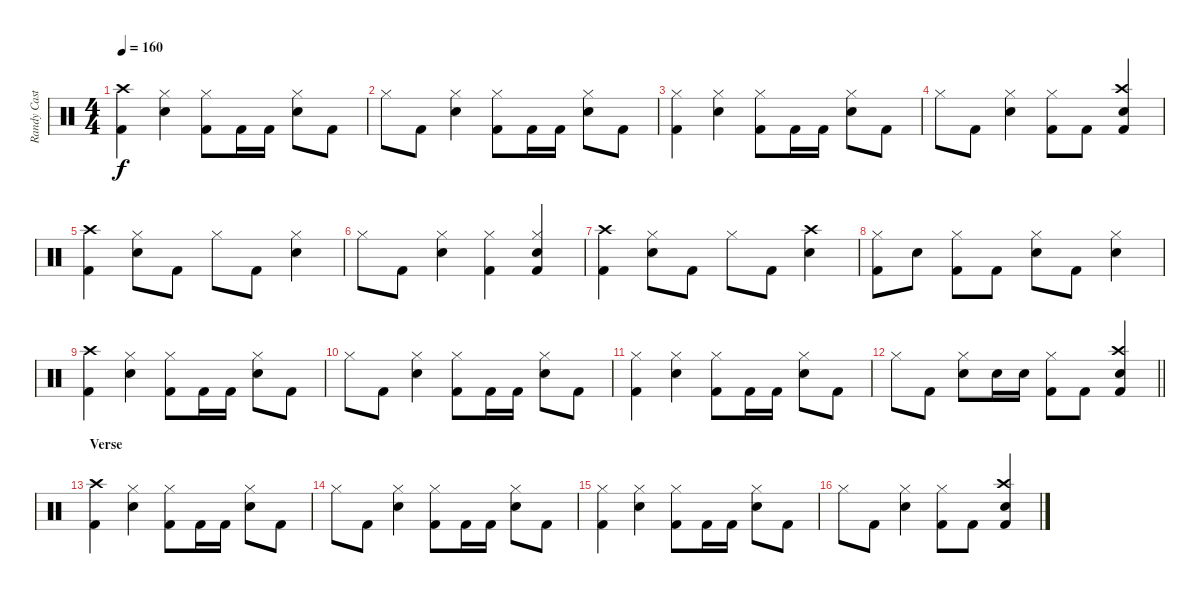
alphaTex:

\track ("Randy Castillo" "Randy Cast") {instrument percussion}
\staff {score}
\articulation defaults
\ts (4 4)
\tempo 160
\clef neutral
\ks aminor
("Kick (hit) 2" "Crash high (hit)").4{dy f} ("Hi-Hat (closed)" "Snare (hit) 2").4 ("Hi-Hat (closed)" "Kick (hit) 2").8 "Kick (hit) 2".16 "Kick (hit) 2".16 ("Hi-Hat (closed)" "Snare (hit) 2").8 "Kick (hit) 2".8 |
"Hi-Hat (closed)".8 "Kick (hit) 2".8 ("Hi-Hat (closed)" "Snare (hit) 2").4 ("Hi-Hat (closed)" "Kick (hit) 2").8 "Kick (hit) 2".16 "Kick (hit) 2".16 ("Hi-Hat (closed)" "Snare (hit) 2").8 "Kick (hit) 2".8 |
("Hi-Hat (closed)" "Kick (hit) 2").4 ("Hi-Hat (closed)" "Snare (hit) 2").4 ("Hi-Hat (closed)" "Kick (hit) 2").8 "Kick (hit) 2".16 "Kick (hit) 2".16 ("Hi-Hat (closed)" "Snare (hit) 2").8 "Kick (hit) 2".8 |
"Hi-Hat (closed)".8 "Kick (hit) 2".8 ("Hi-Hat (closed)" "Snare (hit) 2").4 ("Hi-Hat (closed)" "Kick (hit) 2").8 "Kick (hit) 2".8 ("Snare (hit) 2" "Kick (hit) 2" "Crash high (hit)").4 |
("Kick (hit) 2" "Crash high (hit)").4 ("Hi-Hat (closed)" "Snare (hit) 2").8 "Kick (hit) 2".8 "Hi-Hat (closed)".8 "Kick (hit) 2".8 ("Hi-Hat (closed)" "Snare (hit) 2").4 |
"Hi-Hat (closed)".8 "Kick (hit) 2".8 ("Hi-Hat (closed)" "Snare (hit) 2").4 ("Hi-Hat (closed)" "Kick (hit) 2").4 ("Hi-Hat (closed)" "Snare (hit) 2" "Kick (hit) 2").4 |
("Kick (hit) 2" "Crash high (hit)").4 ("Hi-Hat (closed)" "Snare (hit) 2").8 "Kick (hit) 2".8 "Hi-Hat (closed)".8 "Kick (hit) 2".8 ("Snare (hit) 2" "Crash high (hit)").4 |
("Hi-Hat (closed)" "Kick (hit) 2").8 "Snare (hit) 2".8 ("Hi-Hat (closed)" "Kick (hit) 2").8 "Kick (hit) 2".8 ("Hi-Hat (closed)" "Snare (hit) 2").8 "Kick (hit) 2".8 ("Hi-Hat (closed)" "Snare (hit) 2").4 |
("Kick (hit) 2" "Crash high (hit)").4 ("Hi-Hat (closed)" "Snare (hit) 2").4 ("Hi-Hat (closed)" "Kick (hit) 2").8 "Kick (hit) 2".16 "Kick (hit) 2".16 ("Hi-Hat (closed)" "Snare (hit) 2").8 "Kick (hit) 2".8 |
"Hi-Hat (closed)".8 "Kick (hit) 2".8 ("Hi-Hat (closed)" "Snare (hit) 2").4 ("Hi-Hat (closed)" "Kick (hit) 2").8 "Kick (hit) 2".16 "Kick (hit) 2".16 ("Hi-Hat (closed)" "Snare (hit) 2").8 "Kick (hit) 2".8 |
("Hi-Hat (closed)" "Kick (hit) 2").4 ("Hi-Hat (closed)" "Snare (hit) 2").4 ("Hi-Hat (closed)" "Kick (hit) 2").8 "Kick (hit) 2".16 "Kick (hit) 2".16 ("Hi-Hat (closed)" "Snare (hit) 2").8 "Kick (hit) 2".8 |
\barLineRight lightlight "Hi-Hat (closed)".8 "Kick (hit) 2".8
("Hi-Hat (closed)" "Snare (hit) 2").8 "Snare (hit) 2".16 "Snare (hit) 2".16 ("Hi-Hat (closed)" "Kick (hit) 2").8 "Kick (hit) 2".8 ("Snare (hit) 2" "Kick (hit) 2" "Crash high (hit)").4 |
\section ("" "Verse")
("Kick (hit) 2" "Crash high (hit)").4 ("Hi-Hat (closed)" "Snare (hit) 2").4 ("Hi-Hat (closed)" "Kick (hit) 2").8 "Kick (hit) 2".16 "Kick (hit) 2".16 ("Hi-Hat (closed)" "Snare (hit) 2").8 "Kick (hit) 2".8 |
"Hi-Hat (closed)".8 "Kick (hit) 2".8 ("Hi-Hat (closed)" "Snare (hit) 2").4 ("Hi-Hat (closed)" "Kick (hit) 2").8 "Kick (hit) 2".16 "Kick (hit) 2".16 ("Hi-Hat (closed)" "Snare (hit) 2").8 "Kick (hit) 2".8 |
("Hi-Hat (closed)" "Kick (hit) 2").4 ("Hi-Hat (closed)" "Snare (hit) 2").4 ("Hi-Hat (closed)" "Kick (hit) 2").8 "Kick (hit) 2".16 "Kick (hit) 2".16 ("Hi-Hat (closed)" "Snare (hit) 2").8 "Kick (hit) 2".8 |
"Hi-Hat (closed)".8 "Kick (hit) 2".8 ("Hi-Hat (closed)" "Snare (hit) 2").4 ("Hi-Hat (closed)" "Kick (hit) 2").8 "Kick (hit) 2".8 ("Snare (hit) 2" "Kick (hit) 2" "Crash high (hit)").4
